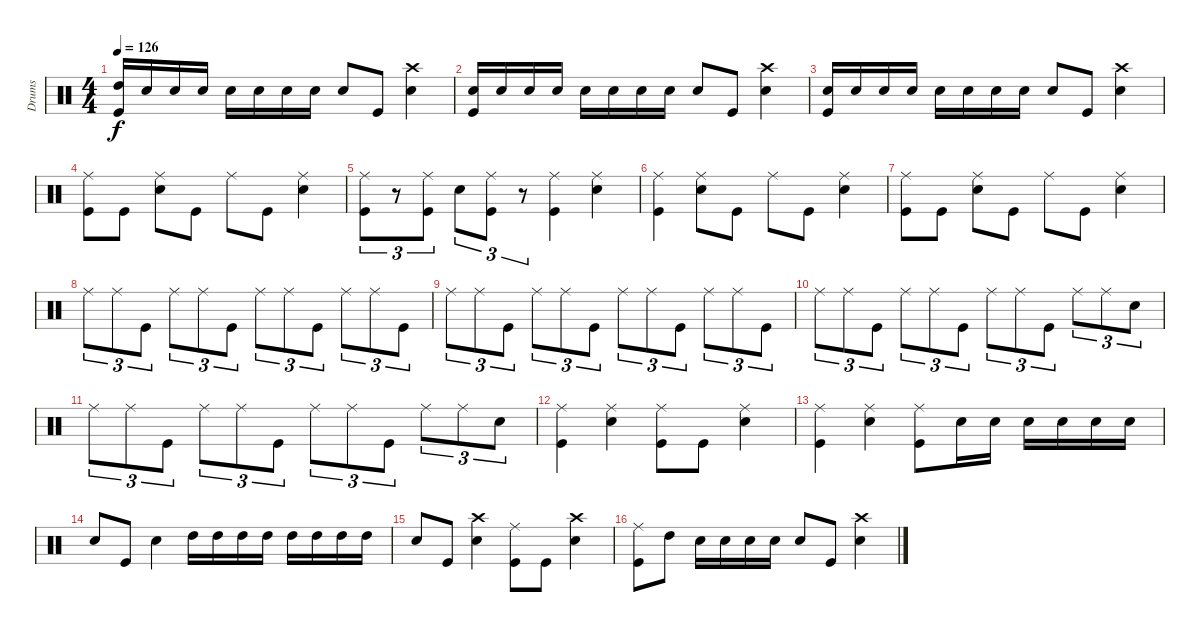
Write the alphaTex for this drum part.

\track ("Drums" "Drums") {instrument percussion}
\staff {score}
\articulation defaults
\ts (4 4)
\tempo 126
\clef neutral
\ks c
("High Tom (hit)" "Kick (hit)").16{dy f} "Electric Snare (hit)".16 "Electric Snare (hit)".16 "Electric Snare (hit)".16 "Electric Snare (hit)".16 "Electric Snare (hit)".16 "Electric Snare (hit)".16 "Electric Snare (hit)".16 "Electric Snare (hit)".8 "Kick (hit)".8 ("Crash high (hit)" "Electric Snare (hit)").4 |
("Electric Snare (hit)" "Kick (hit)").16 "Electric Snare (hit)".16 "Electric Snare (hit)".16 "Electric Snare (hit)".16 "Electric Snare (hit)".16 "Electric Snare (hit)".16 "Electric Snare (hit)".16 "Electric Snare (hit)".16 "Electric Snare (hit)".8 "Kick (hit)".8 ("Crash high (hit)" "Electric Snare (hit)").4 |
("Electric Snare (hit)" "Kick (hit)").16 "Electric Snare (hit)".16 "Electric Snare (hit)".16 "Electric Snare (hit)".16 "Electric Snare (hit)".16 "Electric Snare (hit)".16 "Electric Snare (hit)".16 "Electric Snare (hit)".16 "Electric Snare (hit)".8 "Kick (hit)".8 ("Crash high (hit)" "Electric Snare (hit)").4 |
("Ride (middle)" "Kick (hit)").8 "Kick (hit)".8 ("Ride (middle)" "Electric Snare (hit)").8 "Kick (hit)".8 "Ride (middle)".8 "Kick (hit)".8 ("Ride (middle)" "Electric Snare (hit)").4 |
("Ride (middle)" "Kick (hit)").8{tu (3 2)} r.8{tu (3 2)} ("Ride (middle)" "Kick (hit)").8{tu (3 2)} "Electric Snare (hit)".8{tu (3 2)} ("Ride (middle)" "Kick (hit)").8{tu (3 2)} r.8{tu (3 2)} ("Ride (middle)" "Kick (hit)").4 ("Ride (middle)" "Electric Snare (hit)").4 |
("Ride (middle)" "Kick (hit)").4 ("Ride (middle)" "Electric Snare (hit)").8 "Kick (hit)".8 "Ride (middle)".8 "Kick (hit)".8 ("Ride (middle)" "Electric Snare (hit)").4 |
("Ride (middle)" "Kick (hit)").8 "Kick (hit)".8 ("Ride (middle)" "Electric Snare (hit)").8 "Kick (hit)".8 "Ride (middle)".8 "Kick (hit)".8 ("Ride (middle)" "Electric Snare (hit)").4 |
"Ride (middle)".8{tu (3 2)} "Ride (middle)".8{tu (3 2)} "Kick (hit)".8{tu (3 2)} "Ride (middle)".8{tu (3 2)} "Ride (middle)".8{tu (3 2)} "Kick (hit)".8{tu (3 2)} "Ride (middle)".8{tu (3 2)} "Ride (middle)".8{tu (3 2)} "Kick (hit)".8{tu (3 2)} "Ride (middle)".8{tu (3 2)} "Ride (middle)".8{tu (3 2)} "Kick (hit)".8{tu (3 2)} |
"Ride (middle)".8{tu (3 2)} "Ride (middle)".8{tu (3 2)} "Kick (hit)".8{tu (3 2)} "Ride (middle)".8{tu (3 2)} "Ride (middle)".8{tu (3 2)} "Kick (hit)".8{tu (3 2)} "Ride (middle)".8{tu (3 2)} "Ride (middle)".8{tu (3 2)} "Kick (hit)".8{tu (3 2)} "Ride (middle)".8{tu (3 2)} "Ride (middle)".8{tu (3 2)} "Kick (hit)".8{tu (3 2)} |
"Ride (middle)".8{tu (3 2)} "Ride (middle)".8{tu (3 2)} "Kick (hit)".8{tu (3 2)} "Ride (middle)".8{tu (3 2)} "Ride (middle)".8{tu (3 2)} "Kick (hit)".8{tu (3 2)} "Ride (middle)".8{tu (3 2)} "Ride (middle)".8{tu (3 2)} "Kick (hit)".8{tu (3 2)} "Ride (middle)".8{tu (3 2)} "Ride (middle)".8{tu (3 2)} "Electric Snare (hit)".8{tu (3 2)} |
"Ride (middle)".8{tu (3 2)} "Ride (middle)".8{tu (3 2)} "Kick (hit)".8{tu (3 2)} "Ride (middle)".8{tu (3 2)} "Ride (middle)".8{tu (3 2)} "Kick (hit)".8{tu (3 2)} "Ride (middle)".8{tu (3 2)} "Ride (middle)".8{tu (3 2)} "Kick (hit)".8{tu (3 2)} "Ride (middle)".8{tu (3 2)} "Ride (middle)".8{tu (3 2)} "Electric Snare (hit)".8{tu (3 2)} |
("Ride (middle)" "Kick (hit)").4 ("Ride (middle)" "Electric Snare (hit)").4 ("Ride (middle)" "Kick (hit)").8 "Kick (hit)".8 ("Ride (middle)" "Electric Snare (hit)").4 |
("Ride (middle)" "Kick (hit)").4 ("Ride (middle)" "Electric Snare (hit)").4 ("Ride (middle)" "Kick (hit)").8 "Electric Snare (hit)".16 "Electric Snare (hit)".16 "Electric Snare (hit)".16 "Electric Snare (hit)".16 "Electric Snare (hit)".16 "Electric Snare (hit)".16 |
"Electric Snare (hit)".8 "Kick (hit)".8 "Electric Snare (hit)".4 "High Tom (hit)".16 "High Tom (hit)".16 "High Tom (hit)".16 "High Tom (hit)".16 "High Tom (hit)".16 "High Tom (hit)".16 "High Tom (hit)".16 "High Tom (hit)".16 |
"Electric Snare (hit)".8 "Kick (hit)".8 ("Crash high (hit)" "Electric Snare (hit)").4 ("Ride (middle)" "Kick (hit)").8 "Kick (hit)".8 ("Crash high (hit)" "Electric Snare (hit)").4 |
("Ride (middle)" "Kick (hit)").8 "High Tom (hit)".8 "Electric Snare (hit)".16 "Electric Snare (hit)".16 "Electric Snare (hit)".16 "Electric Snare (hit)".16 "Electric Snare (hit)".8 "Kick (hit)".8 ("Crash high (hit)" "Electric Snare (hit)").4
